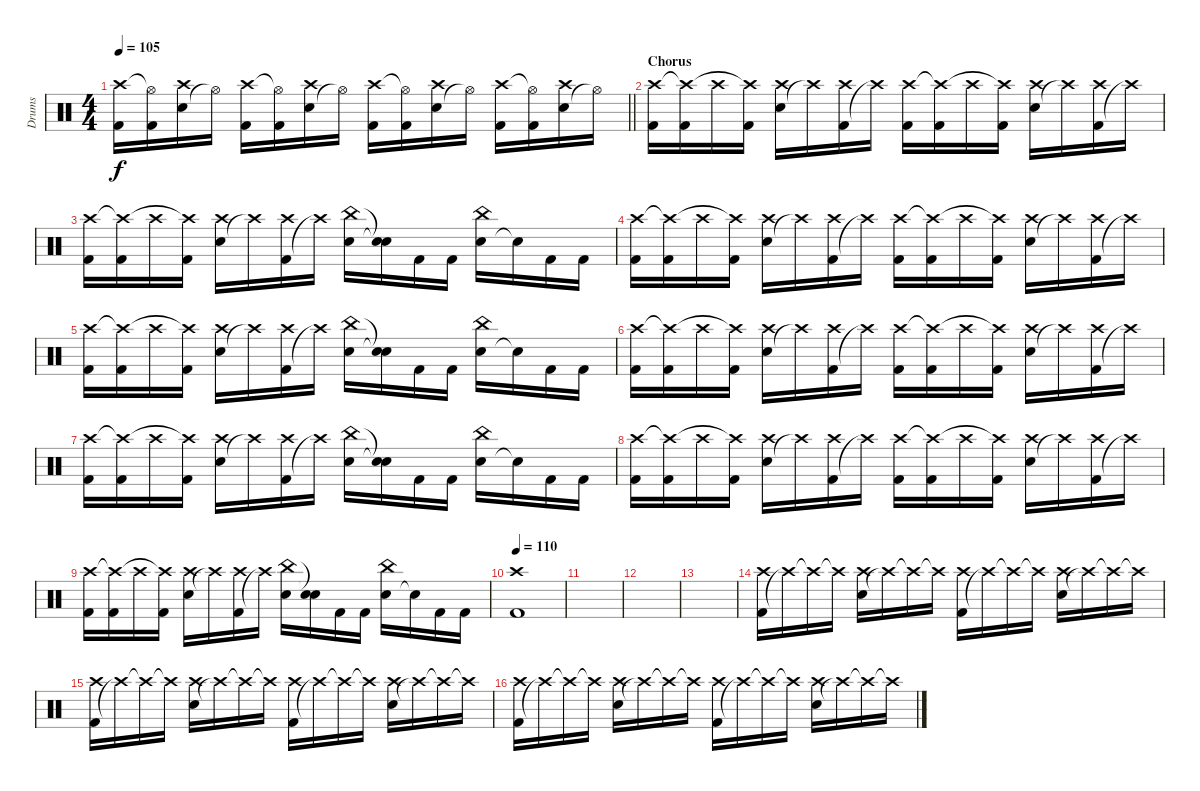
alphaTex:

\track ("Drums" "Drums") {instrument percussion}
\staff {score}
\articulation defaults
\ts (4 4)
\tempo 105
\clef neutral
\barLineRight lightlight
\ks c
("Kick (hit) 2" "Crash high (hit)").16{dy f} ("Kick (hit) 2" "Hi-Hat (open)"{t}).16 ("Snare (hit) 2" "Crash high (hit)").16 "Hi-Hat (open)"{t}.16 ("Kick (hit) 2" "Crash high (hit)").16 ("Kick (hit) 2" "Hi-Hat (open)"{t}).16 ("Snare (hit) 2" "Crash high (hit)").16 "Hi-Hat (open)"{t}.16 ("Kick (hit) 2" "Crash high (hit)").16 ("Kick (hit) 2" "Hi-Hat (open)"{t}).16 ("Snare (hit) 2" "Crash high (hit)").16 "Hi-Hat (open)"{t}.16 ("Kick (hit) 2" "Crash high (hit)").16 ("Kick (hit) 2" "Hi-Hat (open)"{t}).16 ("Snare (hit) 2" "Crash high (hit)").16 "Hi-Hat (open)"{t}.16 |
\section ("" "Chorus")
("Kick (hit) 2" "Crash high (hit)").16 ("Kick (hit) 2" "Crash high (hit)"{t}).16 "Crash high (hit)".16 ("Kick (hit) 2" "Crash high (hit)"{t}).16 ("Snare (hit) 2" "Crash high (hit)").16 "Crash high (hit)"{t}.16 ("Kick (hit) 2" "Crash high (hit)").16 "Crash high (hit)"{t}.16 ("Kick (hit) 2" "Crash high (hit)").16 ("Kick (hit) 2" "Crash high (hit)"{t}).16 "Crash high (hit)".16 ("Kick (hit) 2" "Crash high (hit)"{t}).16 ("Snare (hit) 2" "Crash high (hit)").16 "Crash high (hit)"{t}.16 ("Kick (hit) 2" "Crash high (hit)").16 "Crash high (hit)"{t}.16 |
("Kick (hit) 2" "Crash high (hit)").16 ("Kick (hit) 2" "Crash high (hit)"{t}).16 "Crash high (hit)".16 ("Kick (hit) 2" "Crash high (hit)"{t}).16 ("Snare (hit) 2" "Crash high (hit)").16 "Crash high (hit)"{t}.16 ("Kick (hit) 2" "Crash high (hit)").16 "Crash high (hit)"{t}.16 ("Snare (hit) 2" "China (hit)").16 ("Snare (hit)"{t} "Snare (hit) 2"{t}).16 "Kick (hit) 2".16 "Kick (hit) 2".16 ("Snare (hit) 2" "China (hit)").16 "Snare (hit)"{t}.16 "Kick (hit) 2".16 "Kick (hit) 2".16 |
("Kick (hit) 2" "Crash high (hit)").16 ("Kick (hit) 2" "Crash high (hit)"{t}).16 "Crash high (hit)".16 ("Kick (hit) 2" "Crash high (hit)"{t}).16 ("Snare (hit) 2" "Crash high (hit)").16 "Crash high (hit)"{t}.16 ("Kick (hit) 2" "Crash high (hit)").16 "Crash high (hit)"{t}.16 ("Kick (hit) 2" "Crash high (hit)").16 ("Kick (hit) 2" "Crash high (hit)"{t}).16 "Crash high (hit)".16 ("Kick (hit) 2" "Crash high (hit)"{t}).16 ("Snare (hit) 2" "Crash high (hit)").16 "Crash high (hit)"{t}.16 ("Kick (hit) 2" "Crash high (hit)").16 "Crash high (hit)"{t}.16 |
("Kick (hit) 2" "Crash high (hit)").16 ("Kick (hit) 2" "Crash high (hit)"{t}).16 "Crash high (hit)".16 ("Kick (hit) 2" "Crash high (hit)"{t}).16 ("Snare (hit) 2" "Crash high (hit)").16 "Crash high (hit)"{t}.16 ("Kick (hit) 2" "Crash high (hit)").16 "Crash high (hit)"{t}.16 ("Snare (hit) 2" "China (hit)").16 ("Snare (hit)"{t} "Snare (hit) 2"{t}).16 "Kick (hit) 2".16 "Kick (hit) 2".16 ("Snare (hit) 2" "China (hit)").16 "Snare (hit)"{t}.16 "Kick (hit) 2".16 "Kick (hit) 2".16 |
("Kick (hit) 2" "Crash high (hit)").16 ("Kick (hit) 2" "Crash high (hit)"{t}).16 "Crash high (hit)".16 ("Kick (hit) 2" "Crash high (hit)"{t}).16 ("Snare (hit) 2" "Crash high (hit)").16 "Crash high (hit)"{t}.16 ("Kick (hit) 2" "Crash high (hit)").16 "Crash high (hit)"{t}.16 ("Kick (hit) 2" "Crash high (hit)").16 ("Kick (hit) 2" "Crash high (hit)"{t}).16 "Crash high (hit)".16 ("Kick (hit) 2" "Crash high (hit)"{t}).16 ("Snare (hit) 2" "Crash high (hit)").16 "Crash high (hit)"{t}.16 ("Kick (hit) 2" "Crash high (hit)").16 "Crash high (hit)"{t}.16 |
("Kick (hit) 2" "Crash high (hit)").16 ("Kick (hit) 2" "Crash high (hit)"{t}).16 "Crash high (hit)".16 ("Kick (hit) 2" "Crash high (hit)"{t}).16 ("Snare (hit) 2" "Crash high (hit)").16 "Crash high (hit)"{t}.16 ("Kick (hit) 2" "Crash high (hit)").16 "Crash high (hit)"{t}.16 ("Snare (hit) 2" "China (hit)").16 ("Snare (hit)"{t} "Snare (hit) 2"{t}).16 "Kick (hit) 2".16 "Kick (hit) 2".16 ("Snare (hit) 2" "China (hit)").16 "Snare (hit)"{t}.16 "Kick (hit) 2".16 "Kick (hit) 2".16 |
("Kick (hit) 2" "Crash high (hit)").16 ("Kick (hit) 2" "Crash high (hit)"{t}).16 "Crash high (hit)".16 ("Kick (hit) 2" "Crash high (hit)"{t}).16 ("Snare (hit) 2" "Crash high (hit)").16 "Crash high (hit)"{t}.16 ("Kick (hit) 2" "Crash high (hit)").16 "Crash high (hit)"{t}.16 ("Kick (hit) 2" "Crash high (hit)").16 ("Kick (hit) 2" "Crash high (hit)"{t}).16 "Crash high (hit)".16 ("Kick (hit) 2" "Crash high (hit)"{t}).16 ("Snare (hit) 2" "Crash high (hit)").16 "Crash high (hit)"{t}.16 ("Kick (hit) 2" "Crash high (hit)").16 "Crash high (hit)"{t}.16 |
("Kick (hit) 2" "Crash high (hit)").16 ("Kick (hit) 2" "Crash high (hit)"{t}).16 "Crash high (hit)".16 ("Kick (hit) 2" "Crash high (hit)"{t}).16 ("Snare (hit) 2" "Crash high (hit)").16 "Crash high (hit)"{t}.16 ("Kick (hit) 2" "Crash high (hit)").16 "Crash high (hit)"{t}.16 ("Snare (hit) 2" "China (hit)").16 ("Snare (hit)"{t} "Snare (hit) 2"{t}).16 "Kick (hit) 2".16 "Kick (hit) 2".16 ("Snare (hit) 2" "China (hit)").16 "Snare (hit)"{t}.16 "Kick (hit) 2".16 "Kick (hit) 2".16 |
\tempo 110
("Crash high (hit)" "Kick (hit) 2").1 |
|
|
|
("Kick (hit) 2" "Crash high (hit)").16 "Crash high (hit)"{t}.16 "Crash high (hit)"{t}.16 "Crash high (hit)"{t}.16 ("Snare (hit) 2" "Crash high (hit)").16 "Crash high (hit)"{t}.16 "Crash high (hit)"{t}.16 "Crash high (hit)"{t}.16 ("Kick (hit) 2" "Crash high (hit)").16 "Crash high (hit)"{t}.16 "Crash high (hit)"{t}.16 "Crash high (hit)"{t}.16 ("Snare (hit) 2" "Crash high (hit)").16 "Crash high (hit)"{t}.16 "Crash high (hit)"{t}.16 "Crash high (hit)"{t}.16 |
("Kick (hit) 2" "Crash high (hit)").16 "Crash high (hit)"{t}.16 "Crash high (hit)"{t}.16 "Crash high (hit)"{t}.16 ("Snare (hit) 2" "Crash high (hit)").16 "Crash high (hit)"{t}.16 "Crash high (hit)"{t}.16 "Crash high (hit)"{t}.16 ("Kick (hit) 2" "Crash high (hit)").16 "Crash high (hit)"{t}.16 "Crash high (hit)"{t}.16 "Crash high (hit)"{t}.16 ("Snare (hit) 2" "Crash high (hit)").16 "Crash high (hit)"{t}.16 "Crash high (hit)"{t}.16 "Crash high (hit)"{t}.16 |
("Kick (hit) 2" "Crash high (hit)").16 "Crash high (hit)"{t}.16 "Crash high (hit)"{t}.16 "Crash high (hit)"{t}.16 ("Snare (hit) 2" "Crash high (hit)").16 "Crash high (hit)"{t}.16 "Crash high (hit)"{t}.16 "Crash high (hit)"{t}.16 ("Kick (hit) 2" "Crash high (hit)").16 "Crash high (hit)"{t}.16 "Crash high (hit)"{t}.16 "Crash high (hit)"{t}.16 ("Snare (hit) 2" "Crash high (hit)").16 "Crash high (hit)"{t}.16 "Crash high (hit)"{t}.16 "Crash high (hit)"{t}.16
